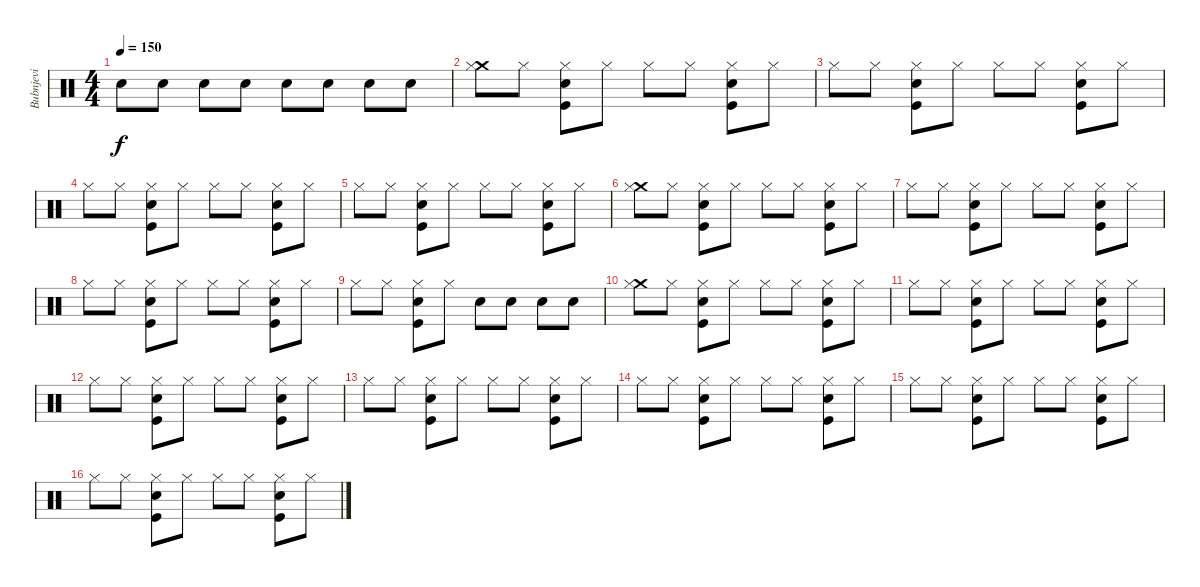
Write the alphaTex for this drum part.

\track ("Bubnjevi" "Bubnjevi") {instrument percussion}
\staff {score}
\articulation defaults
\ts (4 4)
\tempo 150
\clef neutral
\ks c "Snare (hit) 2".8{dy f} "Snare (hit) 2".8 "Snare (hit) 2".8 "Snare (hit) 2".8 "Snare (hit) 2".8 "Snare (hit) 2".8 "Snare (hit) 2".8 "Snare (hit) 2".8
|
("Crash medium (hit)" "Hi-Hat (closed)").8 "Hi-Hat (closed)".8 ("Snare (hit) 2" "Hi-Hat (closed)" "Kick (hit)").8 "Hi-Hat (closed)".8 "Hi-Hat (closed)".8 "Hi-Hat (closed)".8 ("Snare (hit) 2" "Hi-Hat (closed)" "Kick (hit)").8 "Hi-Hat (closed)".8 |
"Hi-Hat (closed)".8 "Hi-Hat (closed)".8 ("Snare (hit) 2" "Hi-Hat (closed)" "Kick (hit)").8 "Hi-Hat (closed)".8 "Hi-Hat (closed)".8 "Hi-Hat (closed)".8 ("Snare (hit) 2" "Hi-Hat (closed)" "Kick (hit)").8 "Hi-Hat (closed)".8 |
"Hi-Hat (closed)".8 "Hi-Hat (closed)".8 ("Snare (hit) 2" "Hi-Hat (closed)" "Kick (hit)").8 "Hi-Hat (closed)".8 "Hi-Hat (closed)".8 "Hi-Hat (closed)".8 ("Snare (hit) 2" "Hi-Hat (closed)" "Kick (hit)").8 "Hi-Hat (closed)".8 |
"Hi-Hat (closed)".8 "Hi-Hat (closed)".8 ("Snare (hit) 2" "Hi-Hat (closed)" "Kick (hit)").8 "Hi-Hat (closed)".8 "Hi-Hat (closed)".8 "Hi-Hat (closed)".8 ("Snare (hit) 2" "Hi-Hat (closed)" "Kick (hit)").8 "Hi-Hat (closed)".8 |
("Crash medium (hit)" "Hi-Hat (closed)").8 "Hi-Hat (closed)".8 ("Snare (hit) 2" "Hi-Hat (closed)" "Kick (hit)").8 "Hi-Hat (closed)".8 "Hi-Hat (closed)".8 "Hi-Hat (closed)".8 ("Snare (hit) 2" "Hi-Hat (closed)" "Kick (hit)").8 "Hi-Hat (closed)".8 |
"Hi-Hat (closed)".8 "Hi-Hat (closed)".8 ("Snare (hit) 2" "Hi-Hat (closed)" "Kick (hit)").8 "Hi-Hat (closed)".8 "Hi-Hat (closed)".8 "Hi-Hat (closed)".8 ("Snare (hit) 2" "Hi-Hat (closed)" "Kick (hit)").8 "Hi-Hat (closed)".8 |
"Hi-Hat (closed)".8 "Hi-Hat (closed)".8 ("Snare (hit) 2" "Hi-Hat (closed)" "Kick (hit)").8 "Hi-Hat (closed)".8 "Hi-Hat (closed)".8 "Hi-Hat (closed)".8 ("Snare (hit) 2" "Hi-Hat (closed)" "Kick (hit)").8 "Hi-Hat (closed)".8 |
"Hi-Hat (closed)".8 "Hi-Hat (closed)".8 ("Snare (hit) 2" "Hi-Hat (closed)" "Kick (hit)").8 "Hi-Hat (closed)".8 "Snare (hit) 2".8 "Snare (hit) 2".8 "Snare (hit) 2".8 "Snare (hit) 2".8 |
("Crash medium (hit)" "Hi-Hat (closed)").8 "Hi-Hat (closed)".8 ("Snare (hit) 2" "Hi-Hat (closed)" "Kick (hit)").8 "Hi-Hat (closed)".8 "Hi-Hat (closed)".8 "Hi-Hat (closed)".8 ("Snare (hit) 2" "Hi-Hat (closed)" "Kick (hit)").8 "Hi-Hat (closed)".8 |
"Hi-Hat (closed)".8 "Hi-Hat (closed)".8 ("Snare (hit) 2" "Hi-Hat (closed)" "Kick (hit)").8 "Hi-Hat (closed)".8 "Hi-Hat (closed)".8 "Hi-Hat (closed)".8 ("Snare (hit) 2" "Hi-Hat (closed)" "Kick (hit)").8 "Hi-Hat (closed)".8 |
"Hi-Hat (closed)".8 "Hi-Hat (closed)".8 ("Snare (hit) 2" "Hi-Hat (closed)" "Kick (hit)").8 "Hi-Hat (closed)".8 "Hi-Hat (closed)".8 "Hi-Hat (closed)".8 ("Snare (hit) 2" "Hi-Hat (closed)" "Kick (hit)").8 "Hi-Hat (closed)".8 |
"Hi-Hat (closed)".8 "Hi-Hat (closed)".8 ("Snare (hit) 2" "Hi-Hat (closed)" "Kick (hit)").8 "Hi-Hat (closed)".8 "Hi-Hat (closed)".8 "Hi-Hat (closed)".8 ("Snare (hit) 2" "Hi-Hat (closed)" "Kick (hit)").8 "Hi-Hat (closed)".8 |
"Hi-Hat (closed)".8 "Hi-Hat (closed)".8 ("Snare (hit) 2" "Hi-Hat (closed)" "Kick (hit)").8 "Hi-Hat (closed)".8 "Hi-Hat (closed)".8 "Hi-Hat (closed)".8 ("Snare (hit) 2" "Hi-Hat (closed)" "Kick (hit)").8 "Hi-Hat (closed)".8 |
"Hi-Hat (closed)".8 "Hi-Hat (closed)".8 ("Snare (hit) 2" "Hi-Hat (closed)" "Kick (hit)").8 "Hi-Hat (closed)".8 "Hi-Hat (closed)".8 "Hi-Hat (closed)".8 ("Snare (hit) 2" "Hi-Hat (closed)" "Kick (hit)").8 "Hi-Hat (closed)".8 |
"Hi-Hat (closed)".8 "Hi-Hat (closed)".8 ("Snare (hit) 2" "Hi-Hat (closed)" "Kick (hit)").8 "Hi-Hat (closed)".8 "Hi-Hat (closed)".8 "Hi-Hat (closed)".8 ("Snare (hit) 2" "Hi-Hat (closed)" "Kick (hit)").8 "Hi-Hat (closed)".8
